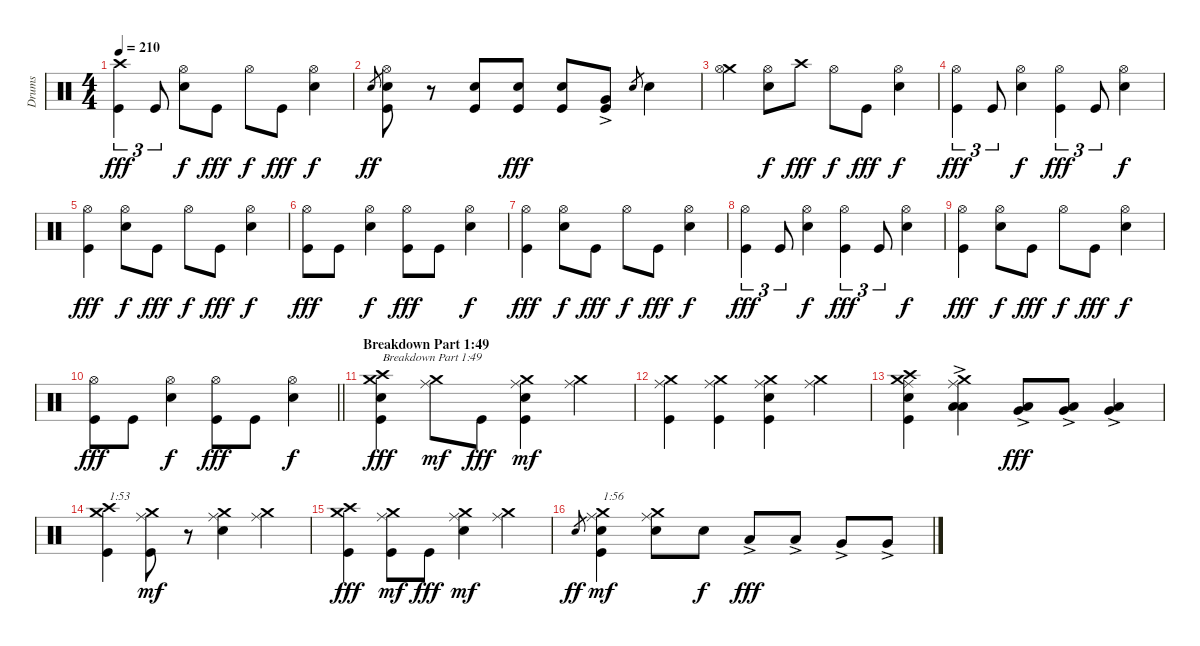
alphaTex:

\track ("Drums" "Drums") {instrument percussion}
\staff {score}
\articulation defaults
\ts (4 4)
\tempo 210
\clef neutral
\ks c
("Kick (hit)" "Crash high (hit)").4{tu (3 2) dy fff} "Kick (hit)".8{tu (3 2)} ("Electric Snare (hit)" "Hi-Hat (open)").8{dy f} "Kick (hit)".8{dy fff} "Hi-Hat (open)".8{dy f} "Kick (hit)".8{dy fff} ("Electric Snare (hit)" "Hi-Hat (open)").4{dy f} |
"Electric Snare (hit)".8{gr dy ff} ("Kick (hit)" "Electric Snare (hit)" "Hi-Hat (open)").8 r.8 ("Kick (hit)" "Electric Snare (hit)").8 ("Kick (hit)" "Electric Snare (hit)").8{dy fff} ("Kick (hit)" "Electric Snare (hit)").8 ("Kick (hit)" "Very Low Tom (hit)"{ac}).8 "Electric Snare (hit)".8{gr} "Electric Snare (hit)".4 |
("Crash medium (hit)" "Hi-Hat (open)").4 ("Electric Snare (hit)" "Hi-Hat (open)").8{dy f} "Crash high (hit)".8{dy fff} "Hi-Hat (open)".8{dy f} "Kick (hit)".8{dy fff} ("Electric Snare (hit)" "Hi-Hat (open)").4{dy f} |
("Kick (hit)" "Hi-Hat (open)").4{tu (3 2) dy fff} "Kick (hit)".8{tu (3 2)} ("Electric Snare (hit)" "Hi-Hat (open)").4{dy f} ("Kick (hit)" "Hi-Hat (open)").4{tu (3 2) dy fff} "Kick (hit)".8{tu (3 2)} ("Electric Snare (hit)" "Hi-Hat (open)").4{dy f} |
("Kick (hit)" "Hi-Hat (open)").4{dy fff} ("Electric Snare (hit)" "Hi-Hat (open)").8{dy f} "Kick (hit)".8{dy fff} "Hi-Hat (open)".8{dy f} "Kick (hit)".8{dy fff} ("Electric Snare (hit)" "Hi-Hat (open)").4{dy f} |
("Kick (hit)" "Hi-Hat (open)").8{dy fff} "Kick (hit)".8 ("Electric Snare (hit)" "Hi-Hat (open)").4{dy f} ("Kick (hit)" "Hi-Hat (open)").8{dy fff} "Kick (hit)".8 ("Electric Snare (hit)" "Hi-Hat (open)").4{dy f} |
("Kick (hit)" "Hi-Hat (open)").4{dy fff} ("Electric Snare (hit)" "Hi-Hat (open)").8{dy f} "Kick (hit)".8{dy fff} "Hi-Hat (open)".8{dy f} "Kick (hit)".8{dy fff} ("Electric Snare (hit)" "Hi-Hat (open)").4{dy f} |
("Kick (hit)" "Hi-Hat (open)").4{tu (3 2) dy fff} "Kick (hit)".8{tu (3 2)} ("Electric Snare (hit)" "Hi-Hat (open)").4{dy f} ("Kick (hit)" "Hi-Hat (open)").4{tu (3 2) dy fff} "Kick (hit)".8{tu (3 2)} ("Electric Snare (hit)" "Hi-Hat (open)").4{dy f} |
("Kick (hit)" "Hi-Hat (open)").4{dy fff} ("Electric Snare (hit)" "Hi-Hat (open)").8{dy f} "Kick (hit)".8{dy fff} "Hi-Hat (open)".8{dy f} "Kick (hit)".8{dy fff} ("Electric Snare (hit)" "Hi-Hat (open)").4{dy f} |
\barLineRight lightlight
("Kick (hit)" "Hi-Hat (open)").8{dy fff} "Kick (hit)".8 ("Electric Snare (hit)" "Hi-Hat (open)").4{dy f} ("Kick (hit)" "Hi-Hat (open)").8{dy fff} "Kick (hit)".8 ("Electric Snare (hit)" "Hi-Hat (open)").4{dy f} |
\section ("" "Breakdown Part 1:49")
("Kick (hit)" "Electric Snare (hit)" "Crash medium (hit)" "Crash high (hit)").4{txt "Breakdown Part 1:49" dy fff} ("Ride (middle)" "Crash medium (hit)").8{dy mf} "Kick (hit)".8{dy fff} ("Kick (hit)" "Electric Snare (hit)" "Ride (middle)" "Crash medium (hit)").4{dy mf} ("Ride (middle)" "Crash medium (hit)").4 |
("Kick (hit)" "Ride (middle)" "Crash medium (hit)").4 ("Kick (hit)" "Ride (middle)" "Crash medium (hit)").4 ("Kick (hit)" "Electric Snare (hit)" "Ride (middle)" "Crash medium (hit)").4 ("Ride (middle)" "Crash medium (hit)").4 |
("Kick (hit)" "Electric Snare (hit)" "Ride (middle)" "Crash medium (hit)" "Crash high (hit)").4 ("Low Tom (hit)"{ac} "Low Floor Tom (hit)"{ac} "Ride (middle)" "Crash medium (hit)").4 ("Low Tom (hit)"{ac} "Very Low Tom (hit)"{ac}).8{dy fff} ("Low Tom (hit)"{ac} "Very Low Tom (hit)"{ac}).8 ("Low Tom (hit)"{ac} "Very Low Tom (hit)"{ac}).4 |
("Kick (hit)" "Crash medium (hit)" "Crash high (hit)").4{txt "1:53"} ("Kick (hit)" "Ride (middle)" "Crash medium (hit)").8{dy mf} r.8 ("Electric Snare (hit)" "Ride (middle)" "Crash medium (hit)").4 ("Ride (middle)" "Crash medium (hit)").4 |
("Kick (hit)" "Crash medium (hit)" "Crash high (hit)").4{dy fff} ("Kick (hit)" "Ride (middle)" "Crash medium (hit)").8{dy mf} "Kick (hit)".8{dy fff} ("Electric Snare (hit)" "Ride (middle)" "Crash medium (hit)").4{dy mf} ("Ride (middle)" "Crash medium (hit)").4 |
"Electric Snare (hit)".8{gr dy ff} ("Kick (hit)" "Electric Snare (hit)" "Ride (middle)" "Crash medium (hit)").4{txt "1:56" dy mf} ("Electric Snare (hit)" "Ride (middle)" "Crash medium (hit)").8 "Electric Snare (hit)".8{dy f} "Low Tom (hit)"{ac}.8{dy fff} "Low Tom (hit)"{ac}.8 "Very Low Tom (hit)"{ac}.8 "Very Low Tom (hit)"{ac}.8
